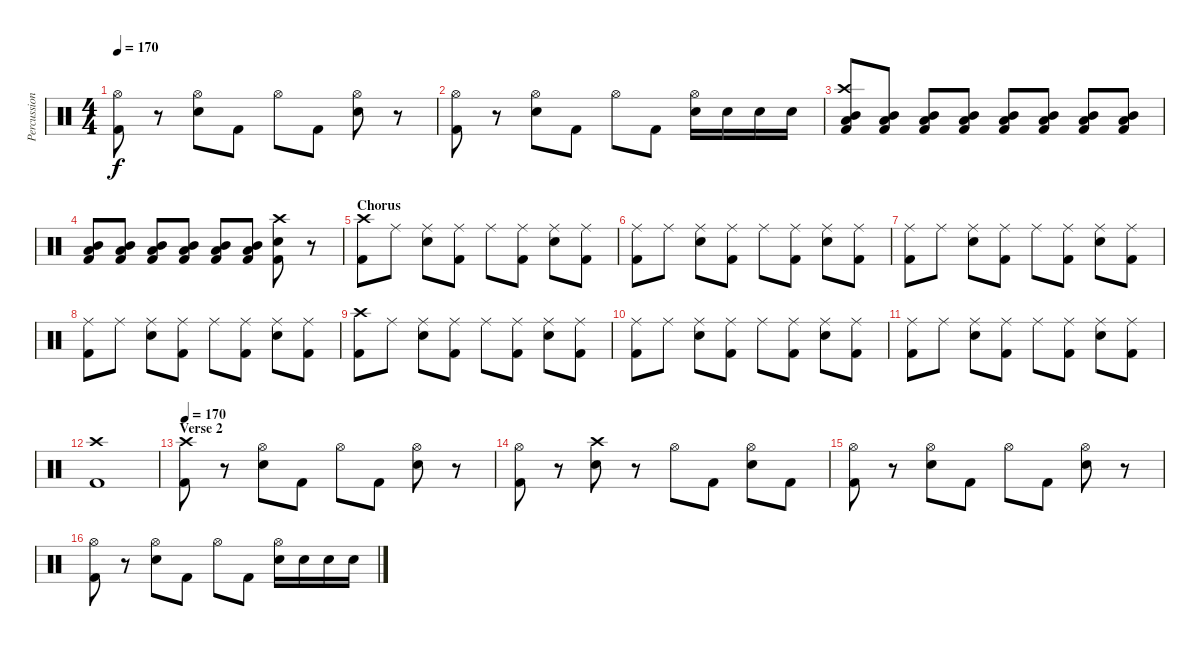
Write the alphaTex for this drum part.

\track ("Percussion" "Percussion") {instrument percussion}
\staff {score}
\articulation defaults
\ts (4 4)
\tempo 170
\clef neutral
\ks c
("Hi-Hat (open)" "Kick (hit) 2").8{dy f} r.8 ("Hi-Hat (open)" "Snare (hit) 2").8 "Kick (hit) 2".8 "Hi-Hat (open)".8 "Kick (hit) 2".8 ("Hi-Hat (open)" "Snare (hit) 2").8 r.8 |
("Hi-Hat (open)" "Kick (hit) 2").8 r.8 ("Hi-Hat (open)" "Snare (hit) 2").8 "Kick (hit) 2".8 "Hi-Hat (open)".8 "Kick (hit) 2".8 ("Hi-Hat (open)" "Snare (hit) 2").16 "Snare (hit) 2".16 "Snare (hit) 2".16 "Snare (hit) 2".16 |
("Crash high (hit)" "Mid Tom (hit)" "Low Tom (hit)" "Kick (hit) 2").8 ("Mid Tom (hit)" "Low Tom (hit)" "Kick (hit) 2").8 ("Mid Tom (hit)" "Low Tom (hit)" "Kick (hit) 2").8 ("Mid Tom (hit)" "Low Tom (hit)" "Kick (hit) 2").8 ("Mid Tom (hit)" "Low Tom (hit)" "Kick (hit) 2").8 ("Mid Tom (hit)" "Low Tom (hit)" "Kick (hit) 2").8 ("Mid Tom (hit)" "Low Tom (hit)" "Kick (hit) 2").8 ("Mid Tom (hit)" "Low Tom (hit)" "Kick (hit) 2").8 |
("Mid Tom (hit)" "Low Tom (hit)" "Kick (hit) 2").8 ("Mid Tom (hit)" "Low Tom (hit)" "Kick (hit) 2").8 ("Mid Tom (hit)" "Low Tom (hit)" "Kick (hit) 2").8 ("Mid Tom (hit)" "Low Tom (hit)" "Kick (hit) 2").8 ("Mid Tom (hit)" "Low Tom (hit)" "Kick (hit) 2").8 ("Mid Tom (hit)" "Low Tom (hit)" "Kick (hit) 2").8 ("Crash high (hit)" "Snare (hit) 2" "Kick (hit) 2").8 r.8 |
\section ("" "Chorus")
("Crash high (hit)" "Kick (hit) 2").8 "Ride (middle)".8 ("Ride (middle)" "Snare (hit) 2").8 ("Ride (middle)" "Kick (hit) 2").8 "Ride (middle)".8 ("Ride (middle)" "Kick (hit) 2").8 ("Ride (middle)" "Snare (hit) 2").8 ("Ride (middle)" "Kick (hit) 2").8 |
("Ride (middle)" "Kick (hit) 2").8 "Ride (middle)".8 ("Ride (middle)" "Snare (hit) 2").8 ("Ride (middle)" "Kick (hit) 2").8 "Ride (middle)".8 ("Ride (middle)" "Kick (hit) 2").8 ("Ride (middle)" "Snare (hit) 2").8 ("Ride (middle)" "Kick (hit) 2").8 |
("Ride (middle)" "Kick (hit) 2").8 "Ride (middle)".8 ("Ride (middle)" "Snare (hit) 2").8 ("Ride (middle)" "Kick (hit) 2").8 "Ride (middle)".8 ("Ride (middle)" "Kick (hit) 2").8 ("Ride (middle)" "Snare (hit) 2").8 ("Ride (middle)" "Kick (hit) 2").8 |
("Ride (middle)" "Kick (hit) 2").8 "Ride (middle)".8 ("Ride (middle)" "Snare (hit) 2").8 ("Ride (middle)" "Kick (hit) 2").8 "Ride (middle)".8 ("Ride (middle)" "Kick (hit) 2").8 ("Ride (middle)" "Snare (hit) 2").8 ("Ride (middle)" "Kick (hit) 2").8 |
("Crash high (hit)" "Kick (hit) 2").8 "Ride (middle)".8 ("Ride (middle)" "Snare (hit) 2").8 ("Ride (middle)" "Kick (hit) 2").8 "Ride (middle)".8 ("Ride (middle)" "Kick (hit) 2").8 ("Ride (middle)" "Snare (hit) 2").8 ("Ride (middle)" "Kick (hit) 2").8 |
("Ride (middle)" "Kick (hit) 2").8 "Ride (middle)".8 ("Ride (middle)" "Snare (hit) 2").8 ("Ride (middle)" "Kick (hit) 2").8 "Ride (middle)".8 ("Ride (middle)" "Kick (hit) 2").8 ("Ride (middle)" "Snare (hit) 2").8 ("Ride (middle)" "Kick (hit) 2").8 |
("Ride (middle)" "Kick (hit) 2").8 "Ride (middle)".8 ("Ride (middle)" "Snare (hit) 2").8 ("Ride (middle)" "Kick (hit) 2").8 "Ride (middle)".8 ("Ride (middle)" "Kick (hit) 2").8 ("Ride (middle)" "Snare (hit) 2").8 ("Ride (middle)" "Kick (hit) 2").8 |
("Crash high (hit)" "Kick (hit) 2").1 |
\section ("" "Verse 2")
\tempo 170
("Crash high (hit)" "Kick (hit) 2").8 r.8 ("Hi-Hat (open)" "Snare (hit) 2").8 "Kick (hit) 2".8 "Hi-Hat (open)".8 "Kick (hit) 2".8 ("Hi-Hat (open)" "Snare (hit) 2").8 r.8 |
("Hi-Hat (open)" "Kick (hit) 2").8 r.8 ("Crash high (hit)" "Snare (hit) 2").8 r.8 "Hi-Hat (open)".8 "Kick (hit) 2".8 ("Hi-Hat (open)" "Snare (hit) 2").8 "Kick (hit) 2".8 |
("Hi-Hat (open)" "Kick (hit) 2").8 r.8 ("Hi-Hat (open)" "Snare (hit) 2").8 "Kick (hit) 2".8 "Hi-Hat (open)".8 "Kick (hit) 2".8 ("Hi-Hat (open)" "Snare (hit) 2").8 r.8 |
("Hi-Hat (open)" "Kick (hit) 2").8 r.8 ("Hi-Hat (open)" "Snare (hit) 2").8 "Kick (hit) 2".8 "Hi-Hat (open)".8 "Kick (hit) 2".8 ("Hi-Hat (open)" "Snare (hit) 2").16 "Snare (hit) 2".16 "Snare (hit) 2".16 "Snare (hit) 2".16
